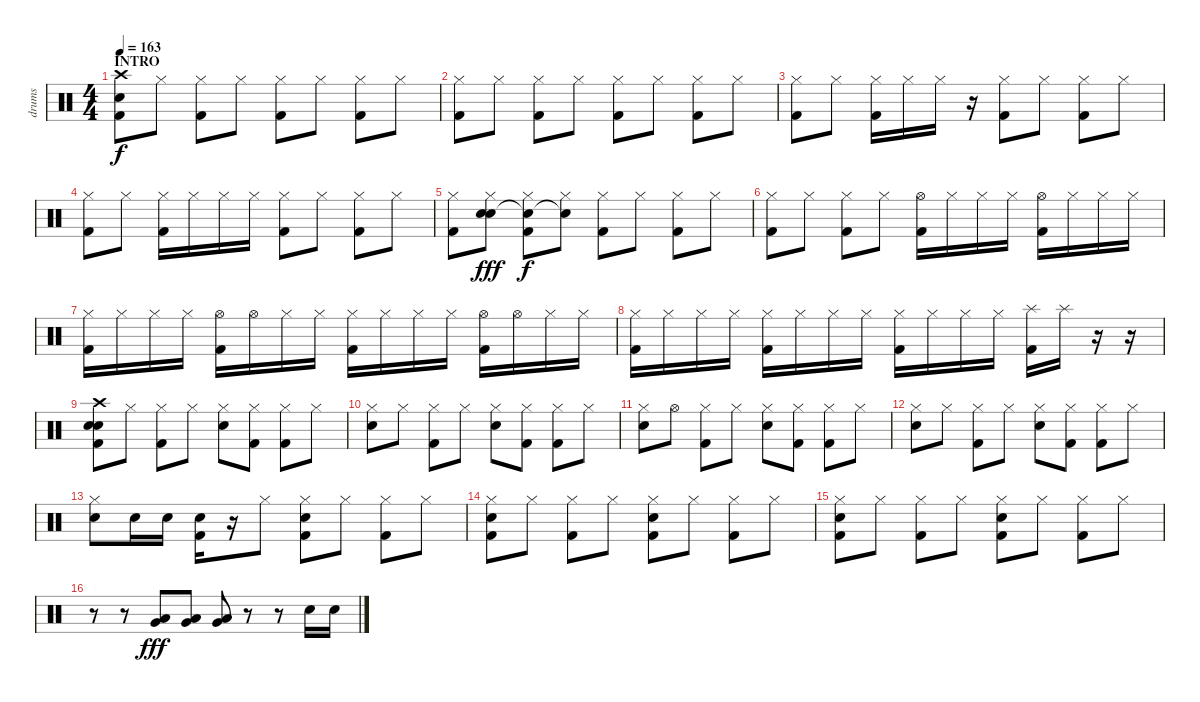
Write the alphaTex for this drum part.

\track ("drums" "drums") {instrument percussion}
\staff {score}
\articulation defaults
\ts (4 4)
\section ("" "INTRO")
\tempo 163
\clef neutral
\ks c
("Crash high (hit)" "Electric Snare (hit)" "Kick (hit) 2").8{dy f} "Hi-Hat (closed)".8 ("Hi-Hat (closed)" "Kick (hit) 2").8 "Hi-Hat (closed)".8 ("Hi-Hat (closed)" "Kick (hit) 2").8 "Hi-Hat (closed)".8 ("Hi-Hat (closed)" "Kick (hit) 2").8 "Hi-Hat (closed)".8 |
("Hi-Hat (closed)" "Kick (hit) 2").8 "Hi-Hat (closed)".8 ("Hi-Hat (closed)" "Kick (hit) 2").8 "Hi-Hat (closed)".8 ("Hi-Hat (closed)" "Kick (hit) 2").8 "Hi-Hat (closed)".8 ("Hi-Hat (closed)" "Kick (hit) 2").8 "Hi-Hat (closed)".8 |
("Hi-Hat (closed)" "Kick (hit) 2").8 "Hi-Hat (closed)".8 ("Hi-Hat (closed)" "Kick (hit) 2").16 "Hi-Hat (closed)".16 "Hi-Hat (closed)".16 r.16 ("Hi-Hat (closed)" "Kick (hit) 2").8 "Hi-Hat (closed)".8 ("Hi-Hat (closed)" "Kick (hit) 2").8 "Hi-Hat (closed)".8 |
("Hi-Hat (closed)" "Kick (hit) 2").8 "Hi-Hat (closed)".8 ("Hi-Hat (closed)" "Kick (hit) 2").16 "Hi-Hat (closed)".16 "Hi-Hat (closed)".16 "Hi-Hat (closed)".16 ("Hi-Hat (closed)" "Kick (hit) 2").8 "Hi-Hat (closed)".8 ("Hi-Hat (closed)" "Kick (hit) 2").8 "Hi-Hat (closed)".8 |
("Hi-Hat (closed)" "Kick (hit) 2").8 ("Hi-Hat (closed)" "Electric Snare (hit)" "Electric Snare (hit)").8{dy fff} ("Hi-Hat (closed)" "Snare (hit)"{t} "Kick (hit) 2").8{dy f} ("Hi-Hat (closed)" "Snare (hit)"{t}).8 ("Hi-Hat (closed)" "Kick (hit) 2").8 "Hi-Hat (closed)".8 ("Hi-Hat (closed)" "Kick (hit) 2").8 "Hi-Hat (closed)".8 |
("Hi-Hat (closed)" "Kick (hit) 2").8 "Hi-Hat (closed)".8 ("Hi-Hat (closed)" "Kick (hit) 2").8 "Hi-Hat (closed)".8 ("Hi-Hat (open)" "Kick (hit) 2").16 "Hi-Hat (closed)".16 "Hi-Hat (closed)".16 "Hi-Hat (closed)".16 ("Hi-Hat (open)" "Kick (hit) 2").16 "Hi-Hat (closed)".16 "Hi-Hat (closed)".16 "Hi-Hat (closed)".16 |
("Hi-Hat (closed)" "Kick (hit) 2").16 "Hi-Hat (closed)".16 "Hi-Hat (closed)".16 "Hi-Hat (closed)".16 ("Hi-Hat (open)" "Kick (hit) 2").16 "Hi-Hat (open)".16 "Hi-Hat (closed)".16 "Hi-Hat (closed)".16 ("Hi-Hat (closed)" "Kick (hit) 2").16 "Hi-Hat (closed)".16 "Hi-Hat (closed)".16 "Hi-Hat (closed)".16 ("Hi-Hat (open)" "Kick (hit) 2").16 "Hi-Hat (open)".16 "Hi-Hat (closed)".16 "Hi-Hat (closed)".16 |
("Hi-Hat (closed)" "Kick (hit) 2").16 "Hi-Hat (closed)".16 "Hi-Hat (closed)".16 "Hi-Hat (closed)".16 ("Hi-Hat (closed)" "Kick (hit) 2").16 "Hi-Hat (closed)".16 "Hi-Hat (closed)".16 "Hi-Hat (closed)".16 ("Hi-Hat (closed)" "Kick (hit) 2").16 "Hi-Hat (closed)".16 "Hi-Hat (closed)".16 "Hi-Hat (closed)".16 ("Splash (hit)" "Kick (hit) 2").16 "Splash (hit)".16 r.16 r.16 |
("Crash high (hit)" "Kick (hit) 2" "Electric Snare (hit)" "Electric Snare (hit)").8 "Hi-Hat (closed)".8 ("Hi-Hat (closed)" "Kick (hit) 2").8 "Hi-Hat (closed)".8 ("Hi-Hat (closed)" "Electric Snare (hit)").8 ("Hi-Hat (closed)" "Kick (hit) 2").8 ("Hi-Hat (closed)" "Kick (hit) 2").8 "Hi-Hat (closed)".8 |
("Hi-Hat (closed)" "Electric Snare (hit)").8 "Hi-Hat (closed)".8 ("Hi-Hat (closed)" "Kick (hit) 2").8 "Hi-Hat (closed)".8 ("Hi-Hat (closed)" "Electric Snare (hit)").8 ("Hi-Hat (closed)" "Kick (hit) 2").8 ("Hi-Hat (closed)" "Kick (hit) 2").8 "Hi-Hat (closed)".8 |
("Hi-Hat (closed)" "Electric Snare (hit)").8 "Hi-Hat (open)".8 ("Hi-Hat (closed)" "Kick (hit) 2").8 "Hi-Hat (closed)".8 ("Hi-Hat (closed)" "Electric Snare (hit)").8 ("Hi-Hat (closed)" "Kick (hit) 2").8 ("Hi-Hat (closed)" "Kick (hit) 2").8 "Hi-Hat (closed)".8 |
("Hi-Hat (closed)" "Electric Snare (hit)").8 "Hi-Hat (closed)".8 ("Hi-Hat (closed)" "Kick (hit) 2").8 "Hi-Hat (closed)".8 ("Hi-Hat (closed)" "Electric Snare (hit)").8 ("Hi-Hat (closed)" "Kick (hit) 2").8 ("Hi-Hat (closed)" "Kick (hit) 2").8 "Hi-Hat (closed)".8 |
("Hi-Hat (closed)" "Electric Snare (hit)").8 "Electric Snare (hit)".16 "Electric Snare (hit)".16 ("Electric Snare (hit)" "Kick (hit) 2").16 r.16 "Hi-Hat (closed)".8 ("Hi-Hat (closed)" "Electric Snare (hit)" "Kick (hit) 2").8 "Hi-Hat (closed)".8 ("Hi-Hat (closed)" "Kick (hit) 2").8 "Hi-Hat (closed)".8 |
("Hi-Hat (closed)" "Electric Snare (hit)" "Kick (hit) 2").8 "Hi-Hat (closed)".8 ("Hi-Hat (closed)" "Kick (hit) 2").8 "Hi-Hat (closed)".8 ("Hi-Hat (closed)" "Electric Snare (hit)" "Kick (hit) 2").8 "Hi-Hat (closed)".8 ("Hi-Hat (closed)" "Kick (hit) 2").8 "Hi-Hat (closed)".8 |
("Hi-Hat (closed)" "Electric Snare (hit)" "Kick (hit) 2").8 "Hi-Hat (closed)".8 ("Hi-Hat (closed)" "Kick (hit) 2").8 "Hi-Hat (closed)".8 ("Hi-Hat (closed)" "Electric Snare (hit)" "Kick (hit) 2").8 "Hi-Hat (closed)".8 ("Hi-Hat (closed)" "Kick (hit) 2").8 "Hi-Hat (closed)".8 |
r.8 r.8 ("Very Low Tom (hit)" "Low Floor Tom (hit)").8{dy fff} ("Very Low Tom (hit)" "Low Floor Tom (hit)").8 ("Very Low Tom (hit)" "Low Floor Tom (hit)").8 r.8 r.8 "Electric Snare (hit)".16 "Electric Snare (hit)".16
